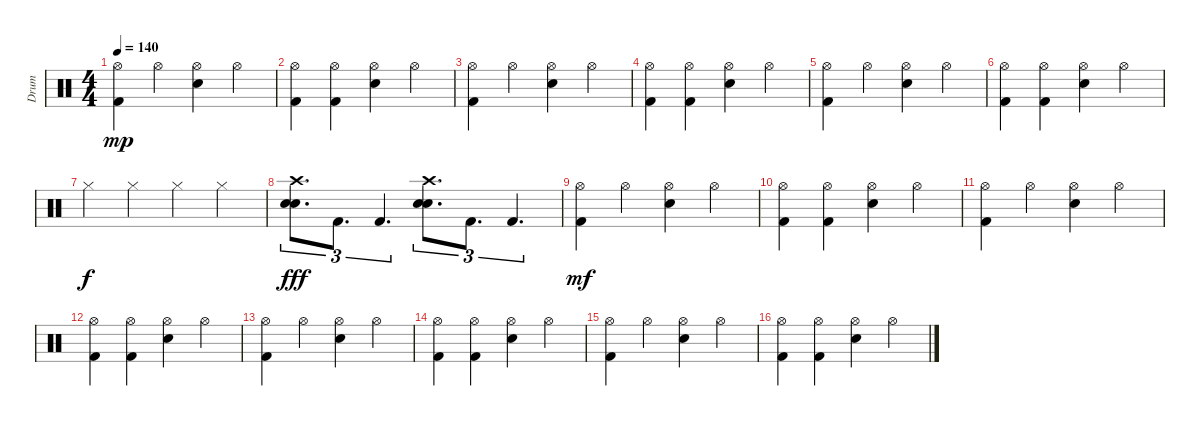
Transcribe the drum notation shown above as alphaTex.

\track ("Drum" "Drum") {instrument percussion}
\staff {score}
\articulation defaults
\ts (4 4)
\tempo 140
\clef neutral
\ks c
("Hi-Hat (open)" "Kick (hit) 2").4{dy mp} "Hi-Hat (open)".4 ("Hi-Hat (open)" "Electric Snare (hit)").4 "Hi-Hat (open)".4 |
("Hi-Hat (open)" "Kick (hit) 2").4 ("Hi-Hat (open)" "Kick (hit) 2").4 ("Hi-Hat (open)" "Electric Snare (hit)").4 "Hi-Hat (open)".4 |
("Hi-Hat (open)" "Kick (hit) 2").4 "Hi-Hat (open)".4 ("Hi-Hat (open)" "Snare (hit) 2").4 "Hi-Hat (open)".4 |
("Hi-Hat (open)" "Kick (hit) 2").4 ("Hi-Hat (open)" "Kick (hit) 2").4 ("Hi-Hat (open)" "Electric Snare (hit)").4 "Hi-Hat (open)".4 |
("Hi-Hat (open)" "Kick (hit) 2").4 "Hi-Hat (open)".4 ("Hi-Hat (open)" "Electric Snare (hit)").4 "Hi-Hat (open)".4 |
("Hi-Hat (open)" "Kick (hit) 2").4 ("Hi-Hat (open)" "Kick (hit) 2").4 ("Hi-Hat (open)" "Electric Snare (hit)").4 "Hi-Hat (open)".4 |
"Hi-Hat (closed)".4{dy f} "Hi-Hat (closed)".4 "Hi-Hat (closed)".4 "Hi-Hat (closed)".4 |
("Electric Snare (hit)" "Electric Snare (hit)" "Crash high (hit)").8{d tu (3 2) dy fff} "Kick (hit) 2".8{d tu (3 2)} "Kick (hit) 2".4{d tu (3 2)} ("Electric Snare (hit)" "Electric Snare (hit)" "Crash high (hit)").8{d tu (3 2)} "Kick (hit) 2".8{d tu (3 2)} "Kick (hit) 2".4{d tu (3 2)} |
("Hi-Hat (open)" "Kick (hit) 2").4{dy mf} "Hi-Hat (open)".4 ("Hi-Hat (open)" "Electric Snare (hit)").4 "Hi-Hat (open)".4 |
("Hi-Hat (open)" "Kick (hit) 2").4 ("Hi-Hat (open)" "Kick (hit) 2").4 ("Hi-Hat (open)" "Electric Snare (hit)").4 "Hi-Hat (open)".4 |
("Hi-Hat (open)" "Kick (hit) 2").4 "Hi-Hat (open)".4 ("Hi-Hat (open)" "Snare (hit) 2").4 "Hi-Hat (open)".4 |
("Hi-Hat (open)" "Kick (hit) 2").4 ("Hi-Hat (open)" "Kick (hit) 2").4 ("Hi-Hat (open)" "Electric Snare (hit)").4 "Hi-Hat (open)".4 |
("Hi-Hat (open)" "Kick (hit) 2").4 "Hi-Hat (open)".4 ("Hi-Hat (open)" "Electric Snare (hit)").4 "Hi-Hat (open)".4 |
("Hi-Hat (open)" "Kick (hit) 2").4 ("Hi-Hat (open)" "Kick (hit) 2").4 ("Hi-Hat (open)" "Electric Snare (hit)").4 "Hi-Hat (open)".4 |
("Hi-Hat (open)" "Kick (hit) 2").4 "Hi-Hat (open)".4 ("Hi-Hat (open)" "Snare (hit) 2").4 "Hi-Hat (open)".4 |
("Hi-Hat (open)" "Kick (hit) 2").4 ("Hi-Hat (open)" "Kick (hit) 2").4 ("Hi-Hat (open)" "Electric Snare (hit)").4 "Hi-Hat (open)".4
